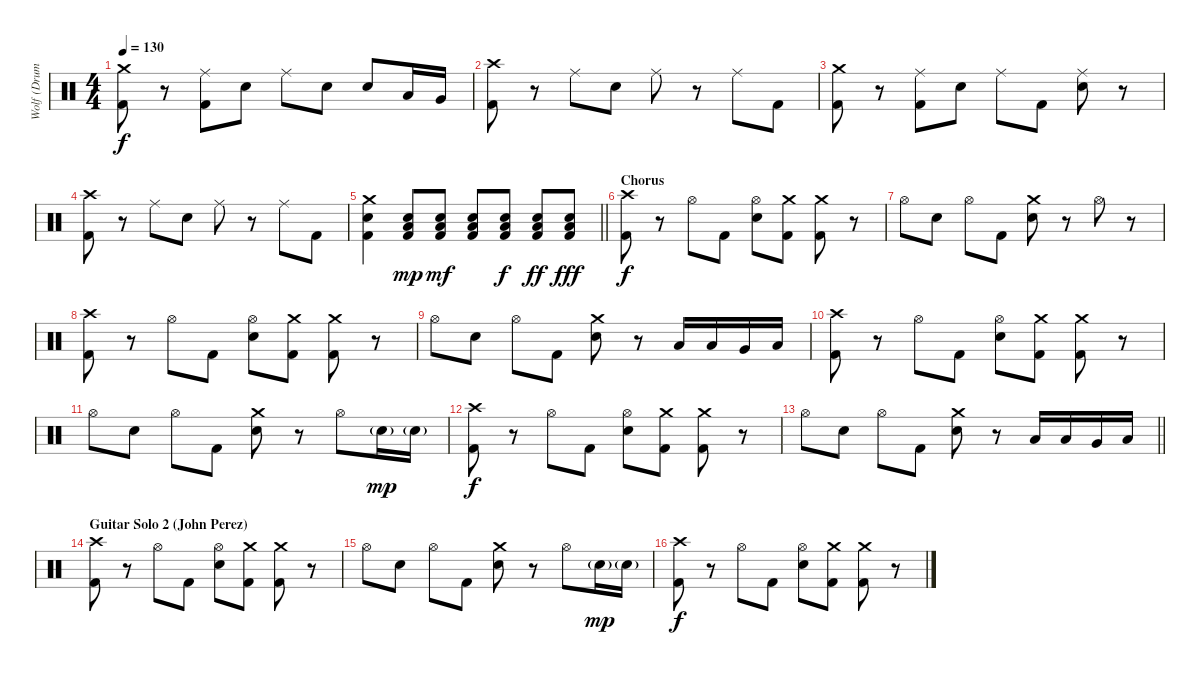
\track ("Wolf (Drums)" "Wolf (Drum") {instrument percussion}
\staff {score}
\articulation defaults
\ts (4 4)
\tempo 130
\clef neutral
\ks c
("Crash medium (hit)" "Kick (hit) 2").8{dy f} r.8 ("Ride (middle)" "Kick (hit) 2").8 "Snare (hit) 2".8 "Ride (middle)".8 "Snare (hit) 2".8 "Snare (hit) 2".8 "Low Tom (hit)".16 "Very Low Tom (hit)".16 |
("Crash high (hit)" "Kick (hit) 2").8 r.8 "Ride (middle)".8 "Snare (hit) 2".8 "Ride (middle)".8 r.8 "Ride (middle)".8 "Kick (hit) 2".8 |
("Crash medium (hit)" "Kick (hit) 2").8 r.8 ("Ride (middle)" "Kick (hit) 2").8 "Snare (hit) 2".8 "Ride (middle)".8 "Kick (hit) 2".8 ("Ride (middle)" "Snare (hit) 2").8 r.8 |
("Crash high (hit)" "Kick (hit) 2").8 r.8 "Ride (middle)".8 "Snare (hit) 2".8 "Ride (middle)".8 r.8 "Ride (middle)".8 "Kick (hit) 2".8 |
\barLineRight lightlight
("Crash medium (hit)" "Snare (hit) 2" "Kick (hit) 2").4 ("Snare (hit) 2" "Low Floor Tom (hit)" "Kick (hit) 2").8{dy mp} ("Snare (hit) 2" "Low Floor Tom (hit)" "Kick (hit) 2").8{dy mf} ("Snare (hit) 2" "Low Floor Tom (hit)" "Kick (hit) 2").8 ("Snare (hit) 2" "Low Floor Tom (hit)" "Kick (hit) 2").8{dy f} ("Snare (hit) 2" "Low Floor Tom (hit)" "Kick (hit) 2").8{dy ff} ("Snare (hit) 2" "Low Floor Tom (hit)" "Kick (hit) 2").8{dy fff} |
\section ("" "Chorus")
("Crash high (hit)" "Kick (hit) 2").8{dy f} r.8 "Hi-Hat (open)".8 "Kick (hit) 2".8 ("Hi-Hat (open)" "Snare (hit) 2").8 ("Crash medium (hit)" "Kick (hit) 2").8 ("Crash medium (hit)" "Kick (hit) 2").8 r.8 |
"Hi-Hat (open)".8{beam merge} "Snare (hit) 2".8 "Hi-Hat (open)".8 "Kick (hit) 2".8 ("Crash medium (hit)" "Snare (hit) 2").8 r.8 "Hi-Hat (open)".8 r.8 |
("Crash high (hit)" "Kick (hit) 2").8 r.8 "Hi-Hat (open)".8 "Kick (hit) 2".8 ("Hi-Hat (open)" "Snare (hit) 2").8 ("Crash medium (hit)" "Kick (hit) 2").8 ("Crash medium (hit)" "Kick (hit) 2").8 r.8 |
"Hi-Hat (open)".8{beam merge} "Snare (hit) 2".8 "Hi-Hat (open)".8 "Kick (hit) 2".8 ("Crash medium (hit)" "Snare (hit) 2").8 r.8 "Low Tom (hit)".16 "Low Tom (hit)".16 "Very Low Tom (hit)".16 "Low Floor Tom (hit)".16 |
("Crash high (hit)" "Kick (hit) 2").8 r.8 "Hi-Hat (open)".8 "Kick (hit) 2".8 ("Hi-Hat (open)" "Snare (hit) 2").8 ("Crash medium (hit)" "Kick (hit) 2").8 ("Crash medium (hit)" "Kick (hit) 2").8 r.8 |
"Hi-Hat (open)".8{beam merge} "Snare (hit) 2".8 "Hi-Hat (open)".8 "Kick (hit) 2".8 ("Crash medium (hit)" "Snare (hit) 2").8 r.8 "Hi-Hat (open)".8 "Snare (hit) 2"{g}.16{dy mp} "Snare (hit) 2"{g}.16 |
("Crash high (hit)" "Kick (hit) 2").8{dy f} r.8 "Hi-Hat (open)".8 "Kick (hit) 2".8 ("Hi-Hat (open)" "Snare (hit) 2").8 ("Crash medium (hit)" "Kick (hit) 2").8 ("Crash medium (hit)" "Kick (hit) 2").8 r.8 |
\barLineRight lightlight "Hi-Hat (open)".8{beam merge} "Snare (hit) 2".8 "Hi-Hat (open)".8 "Kick (hit) 2".8
("Crash medium (hit)" "Snare (hit) 2").8 r.8 "Low Tom (hit)".16 "Low Tom (hit)".16 "Very Low Tom (hit)".16 "Low Floor Tom (hit)".16 |
\section ("" "Guitar Solo 2 (John Perez)")
("Crash high (hit)" "Kick (hit) 2").8 r.8 "Hi-Hat (open)".8 "Kick (hit) 2".8 ("Hi-Hat (open)" "Snare (hit) 2").8 ("Crash medium (hit)" "Kick (hit) 2").8 ("Crash medium (hit)" "Kick (hit) 2").8 r.8 |
"Hi-Hat (open)".8{beam merge} "Snare (hit) 2".8 "Hi-Hat (open)".8 "Kick (hit) 2".8 ("Crash medium (hit)" "Snare (hit) 2").8 r.8 "Hi-Hat (open)".8 "Snare (hit) 2"{g}.16{dy mp} "Snare (hit) 2"{g}.16 |
("Crash high (hit)" "Kick (hit) 2").8{dy f} r.8 "Hi-Hat (open)".8 "Kick (hit) 2".8 ("Hi-Hat (open)" "Snare (hit) 2").8 ("Crash medium (hit)" "Kick (hit) 2").8 ("Crash medium (hit)" "Kick (hit) 2").8 r.8
